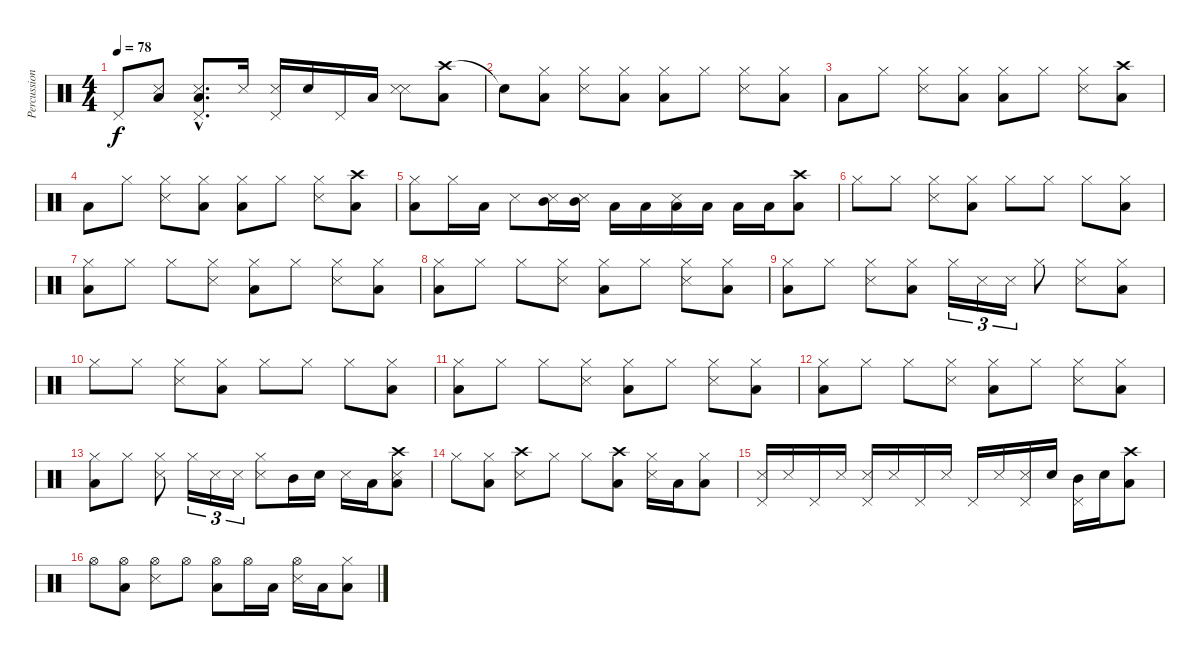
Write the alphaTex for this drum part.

\track ("Percussions" "Percussion") {instrument percussion}
\staff {score}
\articulation defaults
\ts (4 4)
\tempo 78
\clef neutral
\ks c "Pedal Hi-Hat (hit)".8{dy f}
("Snare (side stick) 3" "Low Tom (hit)").8 ("Snare (side stick) 3"{hac} "Low Tom (hit)"{hac} "Pedal Hi-Hat (hit)"{hac}).8{d} "Snare (side stick) 3".16 ("Snare (side stick) 3" "Pedal Hi-Hat (hit)").16 "Snare (hit) 2".16 "Pedal Hi-Hat (hit)".16 "Low Floor Tom (hit)".16 ("Snare (side stick) 3" "Snare (side stick) 3").8 ("Crash high (hit)" "Low Floor Tom (hit)").8 |
"Snare (hit)"{t}.8 ("Hi-Hat (closed)" "Low Floor Tom (hit)").8 ("Hi-Hat (closed)" "Snare (side stick) 3").8 ("Hi-Hat (closed)" "Low Floor Tom (hit)").8 ("Hi-Hat (closed)" "Low Floor Tom (hit)").8 "Hi-Hat (closed)".8 ("Hi-Hat (closed)" "Snare (side stick) 3").8 ("Hi-Hat (closed)" "Low Floor Tom (hit)").8 |
"Low Floor Tom (hit)".8 "Hi-Hat (closed)".8 ("Hi-Hat (closed)" "Snare (side stick) 3").8 ("Hi-Hat (closed)" "Low Floor Tom (hit)").8 ("Hi-Hat (closed)" "Low Floor Tom (hit)").8 "Hi-Hat (closed)".8 ("Hi-Hat (closed)" "Snare (side stick) 3").8 ("Crash high (hit)" "Low Floor Tom (hit)").8 |
"Low Floor Tom (hit)".8 "Hi-Hat (closed)".8 ("Hi-Hat (closed)" "Snare (side stick) 3").8 ("Hi-Hat (closed)" "Low Floor Tom (hit)").8 ("Hi-Hat (closed)" "Low Floor Tom (hit)").8 "Hi-Hat (closed)".8 ("Hi-Hat (closed)" "Snare (side stick) 3").8 ("Crash high (hit)" "Low Floor Tom (hit)").8 |
("Hi-Hat (closed)" "Low Floor Tom (hit)").8 "Hi-Hat (closed)".16 "Low Floor Tom (hit)".16 "Snare (side stick) 3".8 ("Mid Tom (hit)" "Snare (side stick) 3").16 ("Mid Tom (hit)" "Snare (side stick) 3").16 "Low Floor Tom (hit)".16 "Low Floor Tom (hit)".16 ("Snare (side stick) 3" "Low Tom (hit)").16 "Low Floor Tom (hit)".16 "Low Tom (hit)".16 "Low Tom (hit)".16 ("Crash high (hit)" "Low Floor Tom (hit)").8 |
"Hi-Hat (closed)".8 "Hi-Hat (closed)".8 ("Hi-Hat (closed)" "Snare (side stick) 3").8 ("Hi-Hat (closed)" "Low Floor Tom (hit)").8 "Hi-Hat (closed)".8 "Hi-Hat (closed)".8 "Hi-Hat (closed)".8 ("Hi-Hat (closed)" "Low Floor Tom (hit)").8 |
("Hi-Hat (closed)" "Low Floor Tom (hit)").8 "Hi-Hat (closed)".8 "Hi-Hat (closed)".8 ("Hi-Hat (closed)" "Snare (side stick) 3").8 ("Hi-Hat (closed)" "Low Floor Tom (hit)").8 "Hi-Hat (closed)".8 ("Hi-Hat (closed)" "Snare (side stick) 3").8 ("Hi-Hat (closed)" "Low Floor Tom (hit)").8 |
("Hi-Hat (closed)" "Low Floor Tom (hit)").8 "Hi-Hat (closed)".8 "Hi-Hat (closed)".8 ("Hi-Hat (closed)" "Snare (side stick) 3").8 ("Hi-Hat (closed)" "Low Floor Tom (hit)").8 "Hi-Hat (closed)".8 ("Hi-Hat (closed)" "Snare (side stick) 3").8 ("Hi-Hat (closed)" "Low Floor Tom (hit)").8 |
("Hi-Hat (closed)" "Low Floor Tom (hit)").8 "Hi-Hat (closed)".8 ("Hi-Hat (closed)" "Snare (side stick) 3").8 ("Hi-Hat (closed)" "Low Floor Tom (hit)").8 "Hi-Hat (closed)".16{tu (3 2)} "Snare (side stick) 3".16{tu (3 2)} "Snare (side stick) 3".16{tu (3 2)} "Hi-Hat (closed)".8 ("Hi-Hat (closed)" "Snare (side stick) 3").8 ("Hi-Hat (closed)" "Low Floor Tom (hit)").8 |
"Hi-Hat (closed)".8 "Hi-Hat (closed)".8 ("Hi-Hat (closed)" "Snare (side stick) 3").8 ("Hi-Hat (closed)" "Low Floor Tom (hit)").8 "Hi-Hat (closed)".8 "Hi-Hat (closed)".8 "Hi-Hat (closed)".8 ("Hi-Hat (closed)" "Low Floor Tom (hit)").8 |
("Hi-Hat (closed)" "Low Floor Tom (hit)").8 "Hi-Hat (closed)".8 "Hi-Hat (closed)".8 ("Hi-Hat (closed)" "Snare (side stick) 3").8 ("Hi-Hat (closed)" "Low Floor Tom (hit)").8 "Hi-Hat (closed)".8 ("Hi-Hat (closed)" "Snare (side stick) 3").8 ("Hi-Hat (closed)" "Low Floor Tom (hit)").8 |
("Hi-Hat (closed)" "Low Floor Tom (hit)").8 "Hi-Hat (closed)".8 "Hi-Hat (closed)".8 ("Hi-Hat (closed)" "Snare (side stick) 3").8 ("Hi-Hat (closed)" "Low Floor Tom (hit)").8 "Hi-Hat (closed)".8 ("Hi-Hat (closed)" "Snare (side stick) 3").8 ("Hi-Hat (closed)" "Low Floor Tom (hit)").8 |
("Hi-Hat (closed)" "Low Floor Tom (hit)").8 "Hi-Hat (closed)".8 ("Hi-Hat (closed)" "Snare (side stick) 3").8 "Hi-Hat (closed)".16{tu (3 2)} "Snare (side stick) 3".16{tu (3 2)} "Snare (side stick) 3".16{tu (3 2)} ("Hi-Hat (closed)" "Snare (side stick) 3").8 "Mid Tom (hit)".16 "Snare (hit) 2".16 "Snare (side stick) 3".16 "Low Floor Tom (hit)".16 ("Crash high (hit)" "Snare (side stick) 3" "Low Floor Tom (hit)").8 |
"Hi-Hat (closed)".8 ("Hi-Hat (closed)" "Low Floor Tom (hit)").8 ("Crash high (hit)" "Snare (side stick) 3").8 "Hi-Hat (closed)".8 "Hi-Hat (closed)".8 ("Crash high (hit)" "Low Floor Tom (hit)").8 ("Hi-Hat (closed)" "Snare (side stick) 3").16 "Low Floor Tom (hit)".16 ("Hi-Hat (closed)" "Low Floor Tom (hit)").8 |
("Snare (side stick) 3" "Pedal Hi-Hat (hit)").16 "Snare (side stick) 3".16 "Pedal Hi-Hat (hit)".16 "Snare (side stick) 3".16 ("Snare (side stick) 3" "Pedal Hi-Hat (hit)").16 "Snare (side stick) 3".16 "Pedal Hi-Hat (hit)".16 "Snare (side stick) 3".16 "Pedal Hi-Hat (hit)".16 "Snare (side stick) 3".16 ("Snare (side stick) 3" "Pedal Hi-Hat (hit)").16 "Snare (hit) 2".16 ("Mid Tom (hit)" "Pedal Hi-Hat (hit)").16 "Snare (hit) 2".16 ("Crash high (hit)" "Low Floor Tom (hit)").8 |
"Hi-Hat (open)".8 ("Hi-Hat (open)" "Low Floor Tom (hit)").8 ("Hi-Hat (open)" "Snare (side stick) 3").8 "Hi-Hat (open)".8 ("Hi-Hat (open)" "Low Floor Tom (hit)").8 "Hi-Hat (open)".16 "Low Floor Tom (hit)".16 ("Hi-Hat (open)" "Snare (side stick) 3").16 "Low Floor Tom (hit)".16 ("Hi-Hat (closed)" "Low Floor Tom (hit)").8
